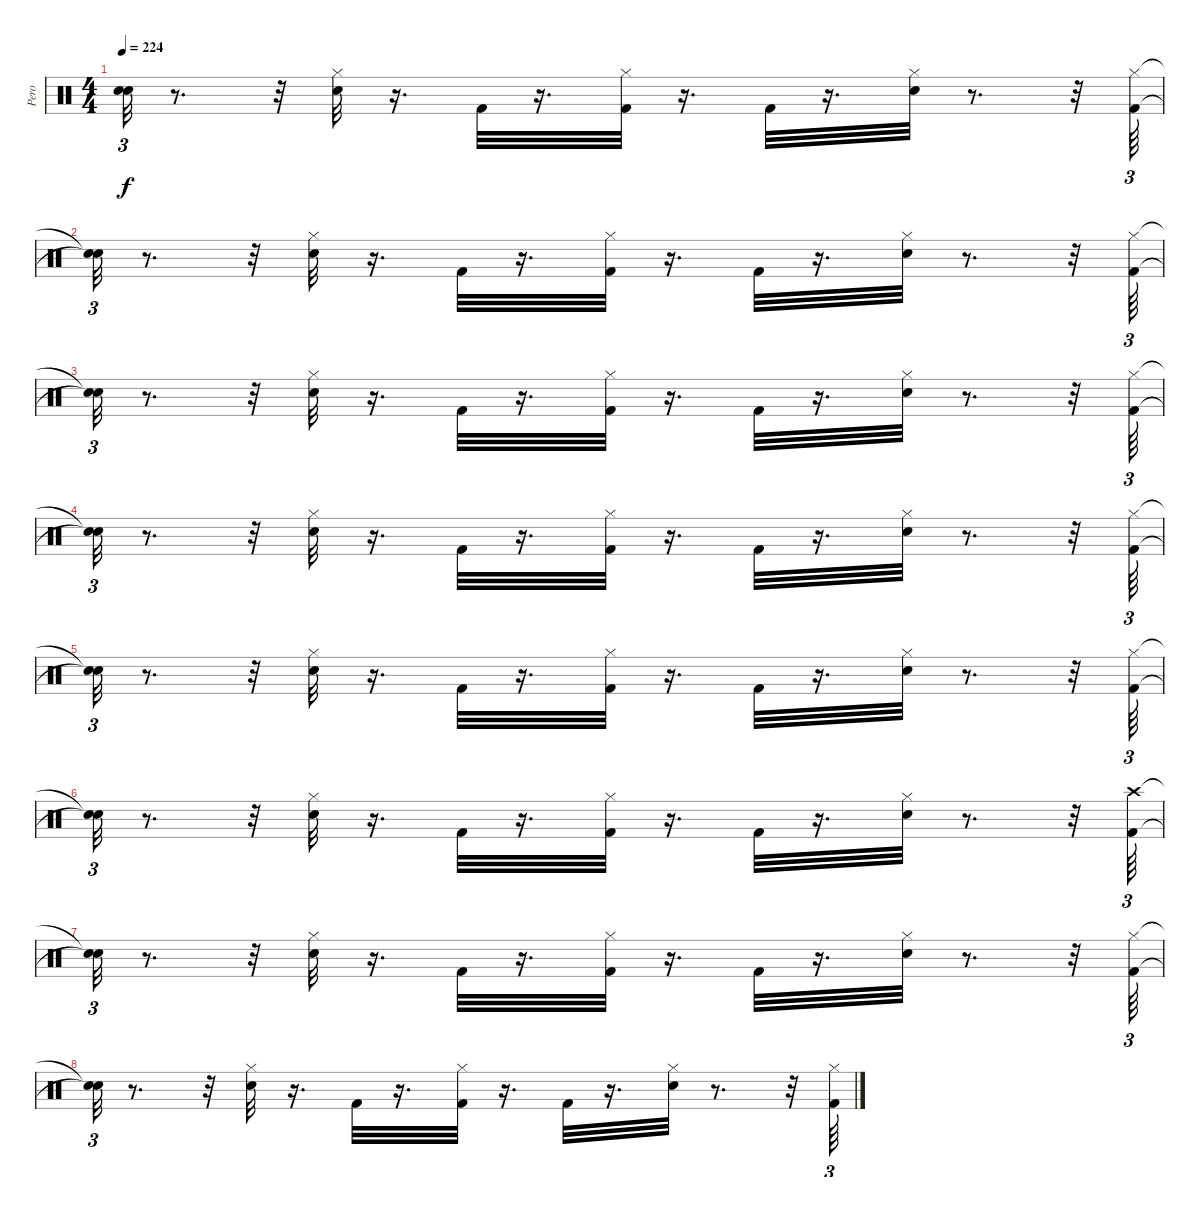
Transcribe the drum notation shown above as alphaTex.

\track ("Pero" "Pero") {instrument percussion}
\staff {score}
\articulation defaults
\ts (4 4)
\tempo 224
\clef neutral
\ks c
("Snare (hit)"{t} "Snare (hit)"{t}).32{tu (3 2) dy f} r.8{d} r.32 ("Hi-Hat (closed)" "Snare (hit) 2").32 r.16{d} "Kick (hit) 2".32 r.16{d} ("Hi-Hat (closed)" "Kick (hit) 2").32 r.16{d} "Kick (hit) 2".32 r.16{d} ("Hi-Hat (closed)" "Snare (hit) 2").32 r.8{d} r.32 ("Kick (hit) 2" "Hi-Hat (closed)").64{tu (3 2)} |
("Snare (hit)"{t} "Snare (hit)"{t}).32{tu (3 2)} r.8{d} r.32 ("Hi-Hat (closed)" "Snare (hit) 2").32 r.16{d} "Kick (hit) 2".32 r.16{d} ("Hi-Hat (closed)" "Kick (hit) 2").32 r.16{d} "Kick (hit) 2".32 r.16{d} ("Hi-Hat (closed)" "Snare (hit) 2").32 r.8{d} r.32 ("Kick (hit) 2" "Hi-Hat (closed)").64{tu (3 2)} |
("Snare (hit)"{t} "Snare (hit)"{t}).32{tu (3 2)} r.8{d} r.32 ("Hi-Hat (closed)" "Snare (hit) 2").32 r.16{d} "Kick (hit) 2".32 r.16{d} ("Hi-Hat (closed)" "Kick (hit) 2").32 r.16{d} "Kick (hit) 2".32 r.16{d} ("Hi-Hat (closed)" "Snare (hit) 2").32 r.8{d} r.32 ("Kick (hit) 2" "Hi-Hat (closed)").64{tu (3 2)} |
("Snare (hit)"{t} "Snare (hit)"{t}).32{tu (3 2)} r.8{d} r.32 ("Hi-Hat (closed)" "Snare (hit) 2").32 r.16{d} "Kick (hit) 2".32 r.16{d} ("Hi-Hat (closed)" "Kick (hit) 2").32 r.16{d} "Kick (hit) 2".32 r.16{d} ("Hi-Hat (closed)" "Snare (hit) 2").32 r.8{d} r.32 ("Kick (hit) 2" "Hi-Hat (closed)").64{tu (3 2)} |
("Snare (hit)"{t} "Snare (hit)"{t}).32{tu (3 2)} r.8{d} r.32 ("Hi-Hat (closed)" "Snare (hit) 2").32 r.16{d} "Kick (hit) 2".32 r.16{d} ("Hi-Hat (closed)" "Kick (hit) 2").32 r.16{d} "Kick (hit) 2".32 r.16{d} ("Hi-Hat (closed)" "Snare (hit) 2").32 r.8{d} r.32 ("Kick (hit) 2" "Hi-Hat (closed)").64{tu (3 2)} |
("Snare (hit)"{t} "Snare (hit)"{t}).32{tu (3 2)} r.8{d} r.32 ("Hi-Hat (closed)" "Snare (hit) 2").32 r.16{d} "Kick (hit) 2".32 r.16{d} ("Hi-Hat (closed)" "Kick (hit) 2").32 r.16{d} "Kick (hit) 2".32 r.16{d} ("Hi-Hat (closed)" "Snare (hit) 2").32 r.8{d} r.32 ("Kick (hit) 2" "Crash high (hit)").64{tu (3 2)} |
("Snare (hit)"{t} "Snare (hit)"{t}).32{tu (3 2)} r.8{d} r.32 ("Hi-Hat (closed)" "Snare (hit) 2").32 r.16{d} "Kick (hit) 2".32 r.16{d} ("Hi-Hat (closed)" "Kick (hit) 2").32 r.16{d} "Kick (hit) 2".32 r.16{d} ("Hi-Hat (closed)" "Snare (hit) 2").32 r.8{d} r.32 ("Kick (hit) 2" "Hi-Hat (closed)").64{tu (3 2)} |
("Snare (hit)"{t} "Snare (hit)"{t}).32{tu (3 2)} r.8{d} r.32 ("Hi-Hat (closed)" "Snare (hit) 2").32 r.16{d} "Kick (hit) 2".32 r.16{d} ("Hi-Hat (closed)" "Kick (hit) 2").32 r.16{d} "Kick (hit) 2".32 r.16{d} ("Hi-Hat (closed)" "Snare (hit) 2").32 r.8{d} r.32 ("Kick (hit) 2" "Hi-Hat (closed)").64{tu (3 2)}
